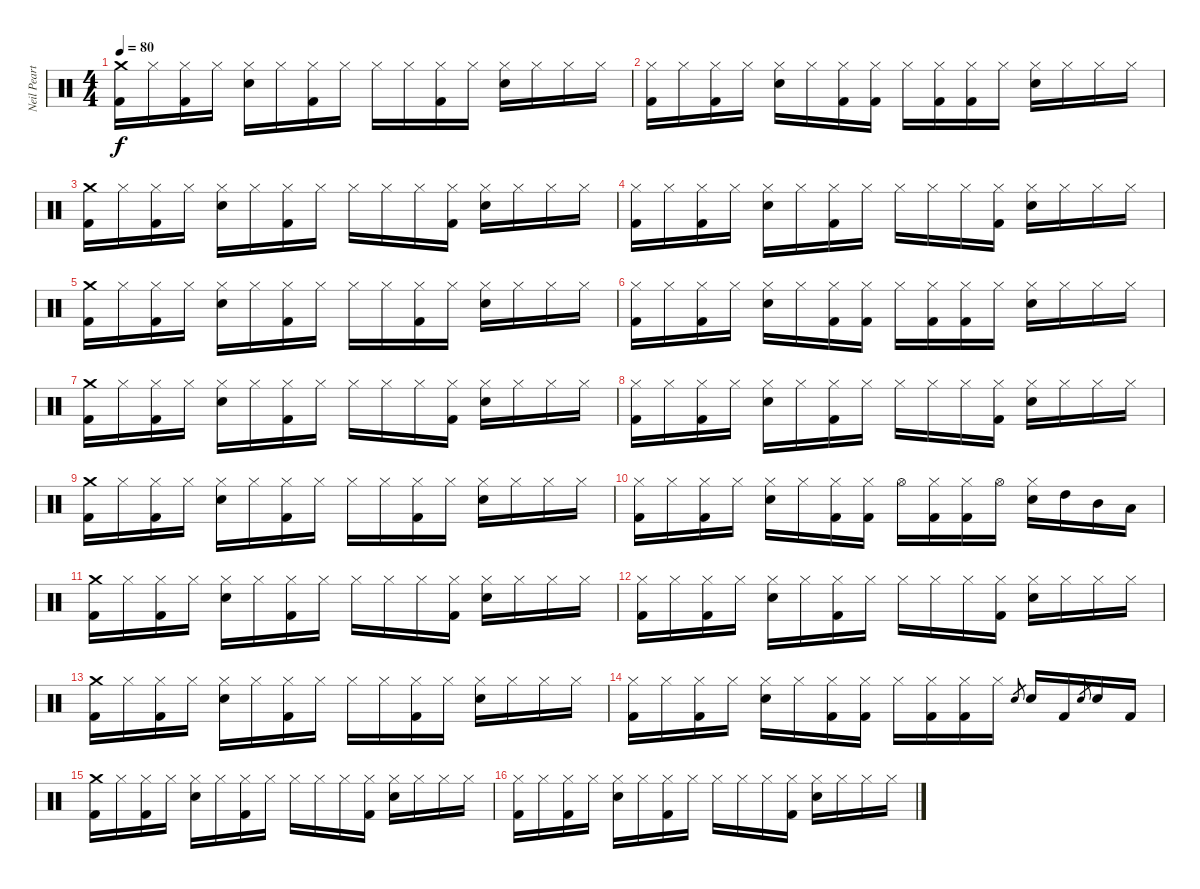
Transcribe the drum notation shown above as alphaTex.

\track ("Neil Peart" "Neil Peart") {instrument percussion}
\staff {score}
\articulation defaults
\ts (4 4)
\tempo 80
\clef neutral
\ks c
("Crash medium (hit)" "Kick (hit) 2").16{dy f} "Hi-Hat (closed)".16 ("Hi-Hat (closed)" "Kick (hit) 2").16 "Hi-Hat (closed)".16 ("Hi-Hat (closed)" "Electric Snare (hit)").16 "Hi-Hat (closed)".16 ("Hi-Hat (closed)" "Kick (hit) 2").16 "Hi-Hat (closed)".16 "Hi-Hat (closed)".16 "Hi-Hat (closed)".16 ("Hi-Hat (closed)" "Kick (hit) 2").16 "Hi-Hat (closed)".16 ("Hi-Hat (closed)" "Electric Snare (hit)").16 "Hi-Hat (closed)".16 "Hi-Hat (closed)".16 "Hi-Hat (closed)".16 |
("Hi-Hat (closed)" "Kick (hit) 2").16 "Hi-Hat (closed)".16 ("Hi-Hat (closed)" "Kick (hit) 2").16 "Hi-Hat (closed)".16 ("Hi-Hat (closed)" "Electric Snare (hit)").16 "Hi-Hat (closed)".16 ("Hi-Hat (closed)" "Kick (hit) 2").16 ("Hi-Hat (closed)" "Kick (hit) 2").16 "Hi-Hat (closed)".16 ("Hi-Hat (closed)" "Kick (hit) 2").16 ("Hi-Hat (closed)" "Kick (hit) 2").16 "Hi-Hat (closed)".16 ("Hi-Hat (closed)" "Electric Snare (hit)").16 "Hi-Hat (closed)".16 "Hi-Hat (closed)".16 "Hi-Hat (closed)".16 |
("Crash medium (hit)" "Kick (hit) 2").16 "Hi-Hat (closed)".16 ("Hi-Hat (closed)" "Kick (hit) 2").16 "Hi-Hat (closed)".16 ("Hi-Hat (closed)" "Electric Snare (hit)").16 "Hi-Hat (closed)".16 ("Hi-Hat (closed)" "Kick (hit) 2").16 "Hi-Hat (closed)".16 "Hi-Hat (closed)".16 "Hi-Hat (closed)".16 "Hi-Hat (closed)".16 ("Hi-Hat (closed)" "Kick (hit) 2").16 ("Hi-Hat (closed)" "Electric Snare (hit)").16 "Hi-Hat (closed)".16 "Hi-Hat (closed)".16 "Hi-Hat (closed)".16 |
("Hi-Hat (closed)" "Kick (hit) 2").16 "Hi-Hat (closed)".16 ("Hi-Hat (closed)" "Kick (hit) 2").16 "Hi-Hat (closed)".16 ("Hi-Hat (closed)" "Electric Snare (hit)").16 "Hi-Hat (closed)".16 ("Hi-Hat (closed)" "Kick (hit) 2").16 "Hi-Hat (closed)".16 "Hi-Hat (closed)".16 "Hi-Hat (closed)".16 "Hi-Hat (closed)".16 ("Hi-Hat (closed)" "Kick (hit) 2").16 ("Hi-Hat (closed)" "Electric Snare (hit)").16 "Hi-Hat (closed)".16 "Hi-Hat (closed)".16 "Hi-Hat (closed)".16 |
("Crash medium (hit)" "Kick (hit) 2").16 "Hi-Hat (closed)".16 ("Hi-Hat (closed)" "Kick (hit) 2").16 "Hi-Hat (closed)".16 ("Hi-Hat (closed)" "Electric Snare (hit)").16 "Hi-Hat (closed)".16 ("Hi-Hat (closed)" "Kick (hit) 2").16 "Hi-Hat (closed)".16 "Hi-Hat (closed)".16 "Hi-Hat (closed)".16 ("Hi-Hat (closed)" "Kick (hit) 2").16 "Hi-Hat (closed)".16 ("Hi-Hat (closed)" "Electric Snare (hit)").16 "Hi-Hat (closed)".16 "Hi-Hat (closed)".16 "Hi-Hat (closed)".16 |
("Hi-Hat (closed)" "Kick (hit) 2").16 "Hi-Hat (closed)".16 ("Hi-Hat (closed)" "Kick (hit) 2").16 "Hi-Hat (closed)".16 ("Hi-Hat (closed)" "Electric Snare (hit)").16 "Hi-Hat (closed)".16 ("Hi-Hat (closed)" "Kick (hit) 2").16 ("Hi-Hat (closed)" "Kick (hit) 2").16 "Hi-Hat (closed)".16 ("Hi-Hat (closed)" "Kick (hit) 2").16 ("Hi-Hat (closed)" "Kick (hit) 2").16 "Hi-Hat (closed)".16 ("Hi-Hat (closed)" "Electric Snare (hit)").16 "Hi-Hat (closed)".16 "Hi-Hat (closed)".16 "Hi-Hat (closed)".16 |
("Crash medium (hit)" "Kick (hit) 2").16 "Hi-Hat (closed)".16 ("Hi-Hat (closed)" "Kick (hit) 2").16 "Hi-Hat (closed)".16 ("Hi-Hat (closed)" "Electric Snare (hit)").16 "Hi-Hat (closed)".16 ("Hi-Hat (closed)" "Kick (hit) 2").16 "Hi-Hat (closed)".16 "Hi-Hat (closed)".16 "Hi-Hat (closed)".16 "Hi-Hat (closed)".16 ("Hi-Hat (closed)" "Kick (hit) 2").16 ("Hi-Hat (closed)" "Electric Snare (hit)").16 "Hi-Hat (closed)".16 "Hi-Hat (closed)".16 "Hi-Hat (closed)".16 |
("Hi-Hat (closed)" "Kick (hit) 2").16 "Hi-Hat (closed)".16 ("Hi-Hat (closed)" "Kick (hit) 2").16 "Hi-Hat (closed)".16 ("Hi-Hat (closed)" "Electric Snare (hit)").16 "Hi-Hat (closed)".16 ("Hi-Hat (closed)" "Kick (hit) 2").16 "Hi-Hat (closed)".16 "Hi-Hat (closed)".16 "Hi-Hat (closed)".16 "Hi-Hat (closed)".16 ("Hi-Hat (closed)" "Kick (hit) 2").16 ("Hi-Hat (closed)" "Electric Snare (hit)").16 "Hi-Hat (closed)".16 "Hi-Hat (closed)".16 "Hi-Hat (closed)".16 |
("Crash medium (hit)" "Kick (hit) 2").16 "Hi-Hat (closed)".16 ("Hi-Hat (closed)" "Kick (hit) 2").16 "Hi-Hat (closed)".16 ("Hi-Hat (closed)" "Electric Snare (hit)").16 "Hi-Hat (closed)".16 ("Hi-Hat (closed)" "Kick (hit) 2").16 "Hi-Hat (closed)".16 "Hi-Hat (closed)".16 "Hi-Hat (closed)".16 ("Hi-Hat (closed)" "Kick (hit) 2").16 "Hi-Hat (closed)".16 ("Hi-Hat (closed)" "Electric Snare (hit)").16 "Hi-Hat (closed)".16 "Hi-Hat (closed)".16 "Hi-Hat (closed)".16 |
("Hi-Hat (closed)" "Kick (hit) 2").16 "Hi-Hat (closed)".16 ("Hi-Hat (closed)" "Kick (hit) 2").16 "Hi-Hat (closed)".16 ("Hi-Hat (closed)" "Electric Snare (hit)").16 "Hi-Hat (closed)".16 ("Hi-Hat (closed)" "Kick (hit) 2").16 ("Hi-Hat (closed)" "Kick (hit) 2").16 "Hi-Hat (open)".16 ("Hi-Hat (closed)" "Kick (hit) 2").16 ("Hi-Hat (closed)" "Kick (hit) 2").16 "Hi-Hat (open)".16 ("Hi-Hat (closed)" "Electric Snare (hit)").16 "High Tom (hit)".16 "Mid Tom (hit)".16 "Low Tom (hit)".16 |
("Crash medium (hit)" "Kick (hit) 2").16 "Hi-Hat (closed)".16 ("Hi-Hat (closed)" "Kick (hit) 2").16 "Hi-Hat (closed)".16 ("Hi-Hat (closed)" "Electric Snare (hit)").16 "Hi-Hat (closed)".16 ("Hi-Hat (closed)" "Kick (hit) 2").16 "Hi-Hat (closed)".16 "Hi-Hat (closed)".16 "Hi-Hat (closed)".16 "Hi-Hat (closed)".16 ("Hi-Hat (closed)" "Kick (hit) 2").16 ("Hi-Hat (closed)" "Electric Snare (hit)").16 "Hi-Hat (closed)".16 "Hi-Hat (closed)".16 "Hi-Hat (closed)".16 |
("Hi-Hat (closed)" "Kick (hit) 2").16 "Hi-Hat (closed)".16 ("Hi-Hat (closed)" "Kick (hit) 2").16 "Hi-Hat (closed)".16 ("Hi-Hat (closed)" "Electric Snare (hit)").16 "Hi-Hat (closed)".16 ("Hi-Hat (closed)" "Kick (hit) 2").16 "Hi-Hat (closed)".16 "Hi-Hat (closed)".16 "Hi-Hat (closed)".16 "Hi-Hat (closed)".16 ("Hi-Hat (closed)" "Kick (hit) 2").16 ("Hi-Hat (closed)" "Electric Snare (hit)").16 "Hi-Hat (closed)".16 "Hi-Hat (closed)".16 "Hi-Hat (closed)".16 |
("Crash medium (hit)" "Kick (hit) 2").16 "Hi-Hat (closed)".16 ("Hi-Hat (closed)" "Kick (hit) 2").16 "Hi-Hat (closed)".16 ("Hi-Hat (closed)" "Electric Snare (hit)").16 "Hi-Hat (closed)".16 ("Hi-Hat (closed)" "Kick (hit) 2").16 "Hi-Hat (closed)".16 "Hi-Hat (closed)".16 "Hi-Hat (closed)".16 ("Hi-Hat (closed)" "Kick (hit) 2").16 "Hi-Hat (closed)".16 ("Hi-Hat (closed)" "Electric Snare (hit)").16 "Hi-Hat (closed)".16 "Hi-Hat (closed)".16 "Hi-Hat (closed)".16 |
("Hi-Hat (closed)" "Kick (hit) 2").16 "Hi-Hat (closed)".16 ("Hi-Hat (closed)" "Kick (hit) 2").16 "Hi-Hat (closed)".16 ("Hi-Hat (closed)" "Electric Snare (hit)").16 "Hi-Hat (closed)".16 ("Hi-Hat (closed)" "Kick (hit) 2").16 ("Hi-Hat (closed)" "Kick (hit) 2").16 "Hi-Hat (closed)".16 ("Hi-Hat (closed)" "Kick (hit) 2").16 ("Hi-Hat (closed)" "Kick (hit) 2").16 "Hi-Hat (closed)".16 "Electric Snare (hit)".8{gr} "Electric Snare (hit)".16 "Kick (hit) 2".16 "Electric Snare (hit)".8{gr} "Electric Snare (hit)".16 "Kick (hit) 2".16 |
("Crash medium (hit)" "Kick (hit) 2").16 "Hi-Hat (closed)".16 ("Hi-Hat (closed)" "Kick (hit) 2").16 "Hi-Hat (closed)".16 ("Hi-Hat (closed)" "Electric Snare (hit)").16 "Hi-Hat (closed)".16 ("Hi-Hat (closed)" "Kick (hit) 2").16 "Hi-Hat (closed)".16 "Hi-Hat (closed)".16 "Hi-Hat (closed)".16 "Hi-Hat (closed)".16 ("Hi-Hat (closed)" "Kick (hit) 2").16 ("Hi-Hat (closed)" "Electric Snare (hit)").16 "Hi-Hat (closed)".16 "Hi-Hat (closed)".16 "Hi-Hat (closed)".16 |
("Hi-Hat (closed)" "Kick (hit) 2").16 "Hi-Hat (closed)".16 ("Hi-Hat (closed)" "Kick (hit) 2").16 "Hi-Hat (closed)".16 ("Hi-Hat (closed)" "Electric Snare (hit)").16 "Hi-Hat (closed)".16 ("Hi-Hat (closed)" "Kick (hit) 2").16 "Hi-Hat (closed)".16 "Hi-Hat (closed)".16 "Hi-Hat (closed)".16 "Hi-Hat (closed)".16 ("Hi-Hat (closed)" "Kick (hit) 2").16 ("Hi-Hat (closed)" "Electric Snare (hit)").16 "Hi-Hat (closed)".16 "Hi-Hat (closed)".16 "Hi-Hat (closed)".16
